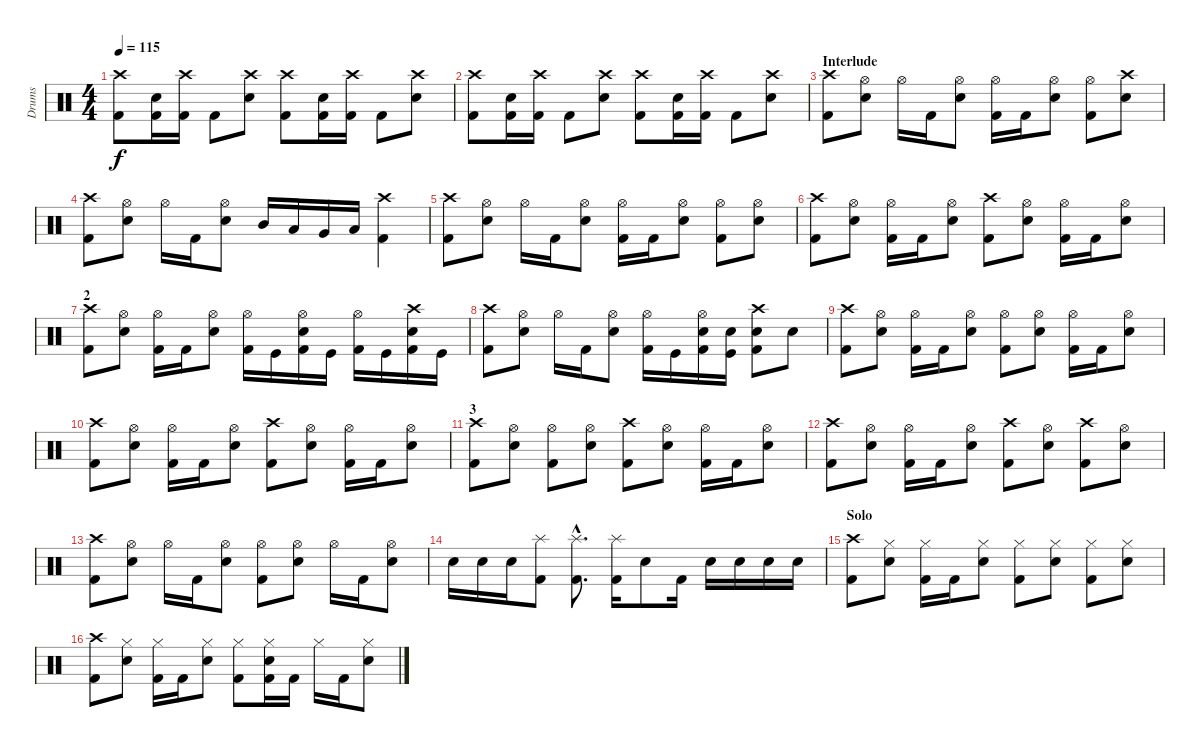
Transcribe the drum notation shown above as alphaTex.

\track ("Drums" "Drums") {instrument percussion}
\staff {score}
\articulation defaults
\ts (4 4)
\tempo 115
\clef neutral
\ks c
("Crash high (hit)" "Kick (hit) 2").8{dy f} ("Snare (hit) 2" "Kick (hit) 2").16 ("Crash high (hit)" "Kick (hit) 2").16 "Kick (hit) 2".8 ("Crash high (hit)" "Snare (hit) 2").8 ("Crash high (hit)" "Kick (hit) 2").8 ("Snare (hit) 2" "Kick (hit) 2").16 ("Crash high (hit)" "Kick (hit) 2").16 "Kick (hit) 2".8 ("Crash high (hit)" "Snare (hit) 2").8 |
("Crash high (hit)" "Kick (hit) 2").8 ("Snare (hit) 2" "Kick (hit) 2").16 ("Crash high (hit)" "Kick (hit) 2").16 "Kick (hit) 2".8 ("Crash high (hit)" "Snare (hit) 2").8 ("Crash high (hit)" "Kick (hit) 2").8 ("Snare (hit) 2" "Kick (hit) 2").16 ("Crash high (hit)" "Kick (hit) 2").16 "Kick (hit) 2".8 ("Crash high (hit)" "Snare (hit) 2").8 |
\section ("" "Interlude")
("Crash high (hit)" "Kick (hit) 2").8 ("Hi-Hat (open)" "Snare (hit) 2").8 "Hi-Hat (open)".16 "Kick (hit) 2".16 ("Hi-Hat (open)" "Snare (hit) 2").8 ("Hi-Hat (open)" "Kick (hit) 2").16 "Kick (hit) 2".16 ("Hi-Hat (open)" "Snare (hit) 2").8 ("Hi-Hat (open)" "Kick (hit) 2").8 ("Crash high (hit)" "Snare (hit) 2").8 |
("Crash high (hit)" "Kick (hit) 2").8 ("Hi-Hat (open)" "Snare (hit) 2").8 "Hi-Hat (open)".16 "Kick (hit) 2".16 ("Hi-Hat (open)" "Snare (hit) 2").8 "Mid Tom (hit)".16 "Low Tom (hit)".16 "Very Low Tom (hit)".16 "Low Floor Tom (hit)".16 ("Crash high (hit)" "Kick (hit) 2").4 |
("Crash high (hit)" "Kick (hit) 2").8 ("Hi-Hat (open)" "Snare (hit) 2").8 "Hi-Hat (open)".16 "Kick (hit) 2".16 ("Hi-Hat (open)" "Snare (hit) 2").8 ("Hi-Hat (open)" "Kick (hit) 2").16 "Kick (hit) 2".16 ("Hi-Hat (open)" "Snare (hit) 2").8 ("Hi-Hat (open)" "Kick (hit) 2").8 ("Hi-Hat (open)" "Snare (hit) 2").8 |
("Crash high (hit)" "Kick (hit) 2").8 ("Hi-Hat (open)" "Snare (hit) 2").8 ("Hi-Hat (open)" "Kick (hit) 2").16 "Kick (hit) 2".16 ("Hi-Hat (open)" "Snare (hit) 2").8 ("Crash high (hit)" "Kick (hit) 2").8 ("Hi-Hat (open)" "Snare (hit) 2").8 ("Hi-Hat (open)" "Kick (hit) 2").16 "Kick (hit) 2".16 ("Hi-Hat (open)" "Snare (hit) 2").8 |
\section ("" "2")
("Crash high (hit)" "Kick (hit) 2").8 ("Hi-Hat (open)" "Snare (hit) 2").8 ("Hi-Hat (open)" "Kick (hit) 2").16 "Kick (hit) 2".16 ("Hi-Hat (open)" "Snare (hit) 2").8 ("Hi-Hat (open)" "Kick (hit) 2").16 "Kick (hit)".16 ("Hi-Hat (open)" "Snare (hit) 2" "Kick (hit) 2").16 "Kick (hit)".16 ("Hi-Hat (open)" "Kick (hit) 2").16 "Kick (hit)".16 ("Crash high (hit)" "Snare (hit) 2" "Kick (hit) 2").16 "Kick (hit)".16 |
("Crash high (hit)" "Kick (hit) 2").8 ("Hi-Hat (open)" "Snare (hit) 2").8 "Hi-Hat (open)".16 "Kick (hit) 2".16 ("Hi-Hat (open)" "Snare (hit) 2").8 ("Hi-Hat (open)" "Kick (hit) 2").16 "Kick (hit)".16 ("Hi-Hat (open)" "Snare (hit) 2" "Kick (hit) 2").16 ("Snare (hit) 2" "Kick (hit)").16 ("Crash high (hit)" "Snare (hit) 2" "Kick (hit) 2").8 "Snare (hit) 2".8 |
("Crash high (hit)" "Kick (hit) 2").8 ("Hi-Hat (open)" "Snare (hit) 2").8 ("Hi-Hat (open)" "Kick (hit) 2").16 "Kick (hit) 2".16 ("Hi-Hat (open)" "Snare (hit) 2").8 ("Hi-Hat (open)" "Kick (hit) 2").8 ("Hi-Hat (open)" "Snare (hit) 2").8 ("Hi-Hat (open)" "Kick (hit) 2").16 "Kick (hit) 2".16 ("Hi-Hat (open)" "Snare (hit) 2").8 |
("Crash high (hit)" "Kick (hit) 2").8 ("Hi-Hat (open)" "Snare (hit) 2").8 ("Hi-Hat (open)" "Kick (hit) 2").16 "Kick (hit) 2".16 ("Hi-Hat (open)" "Snare (hit) 2").8 ("Crash high (hit)" "Kick (hit) 2").8 ("Hi-Hat (open)" "Snare (hit) 2").8 ("Hi-Hat (open)" "Kick (hit) 2").16 "Kick (hit) 2".16 ("Hi-Hat (open)" "Snare (hit) 2").8 |
\section ("" "3")
("Crash high (hit)" "Kick (hit) 2").8 ("Hi-Hat (open)" "Snare (hit) 2").8 ("Hi-Hat (open)" "Kick (hit) 2").8 ("Hi-Hat (open)" "Snare (hit) 2").8 ("Crash high (hit)" "Kick (hit) 2").8 ("Hi-Hat (open)" "Snare (hit) 2").8 ("Hi-Hat (open)" "Kick (hit) 2").16 "Kick (hit) 2".16 ("Hi-Hat (open)" "Snare (hit) 2").8 |
("Crash high (hit)" "Kick (hit) 2").8 ("Hi-Hat (open)" "Snare (hit) 2").8 ("Hi-Hat (open)" "Kick (hit) 2").16 "Kick (hit) 2".16 ("Hi-Hat (open)" "Snare (hit) 2").8 ("Crash high (hit)" "Kick (hit) 2").8 ("Hi-Hat (open)" "Snare (hit) 2").8 ("Crash high (hit)" "Kick (hit) 2").8 ("Hi-Hat (open)" "Snare (hit) 2").8 |
("Crash high (hit)" "Kick (hit) 2").8 ("Hi-Hat (open)" "Snare (hit) 2").8 "Hi-Hat (open)".16 "Kick (hit) 2".16 ("Hi-Hat (open)" "Snare (hit) 2").8 ("Hi-Hat (open)" "Kick (hit) 2").8 ("Hi-Hat (open)" "Snare (hit) 2").8 "Hi-Hat (open)".16 "Kick (hit) 2".16 ("Hi-Hat (open)" "Snare (hit) 2").8 |
"Snare (hit) 2".16 "Snare (hit) 2".16 "Snare (hit) 2".16 ("Splash (hit)" "Kick (hit) 2").8 ("Splash (hit)"{hac} "Kick (hit) 2"{hac}).8{d} ("Splash (hit)" "Kick (hit) 2").16 "Snare (hit) 2".8 "Kick (hit) 2".16 "Snare (hit) 2".16 "Snare (hit) 2".16 "Snare (hit) 2".16 "Snare (hit) 2".16 |
\section ("" "Solo")
("Crash high (hit)" "Kick (hit) 2").8 ("Hi-Hat (closed)" "Snare (hit) 2").8 ("Hi-Hat (closed)" "Kick (hit) 2").16 "Kick (hit) 2".16 ("Hi-Hat (closed)" "Snare (hit) 2").8 ("Hi-Hat (closed)" "Kick (hit) 2").8 ("Hi-Hat (closed)" "Snare (hit) 2").8 ("Hi-Hat (closed)" "Kick (hit) 2").8 ("Hi-Hat (closed)" "Snare (hit) 2").8 |
("Crash high (hit)" "Kick (hit) 2").8 ("Hi-Hat (closed)" "Snare (hit) 2").8 ("Hi-Hat (closed)" "Kick (hit) 2").16 "Kick (hit) 2".16 ("Hi-Hat (closed)" "Snare (hit) 2").8 ("Hi-Hat (closed)" "Kick (hit) 2").8 ("Hi-Hat (closed)" "Kick (hit) 2" "Snare (hit) 2").16 "Kick (hit) 2".16 "Hi-Hat (closed)".16 "Kick (hit) 2".16 ("Hi-Hat (closed)" "Snare (hit) 2").8
